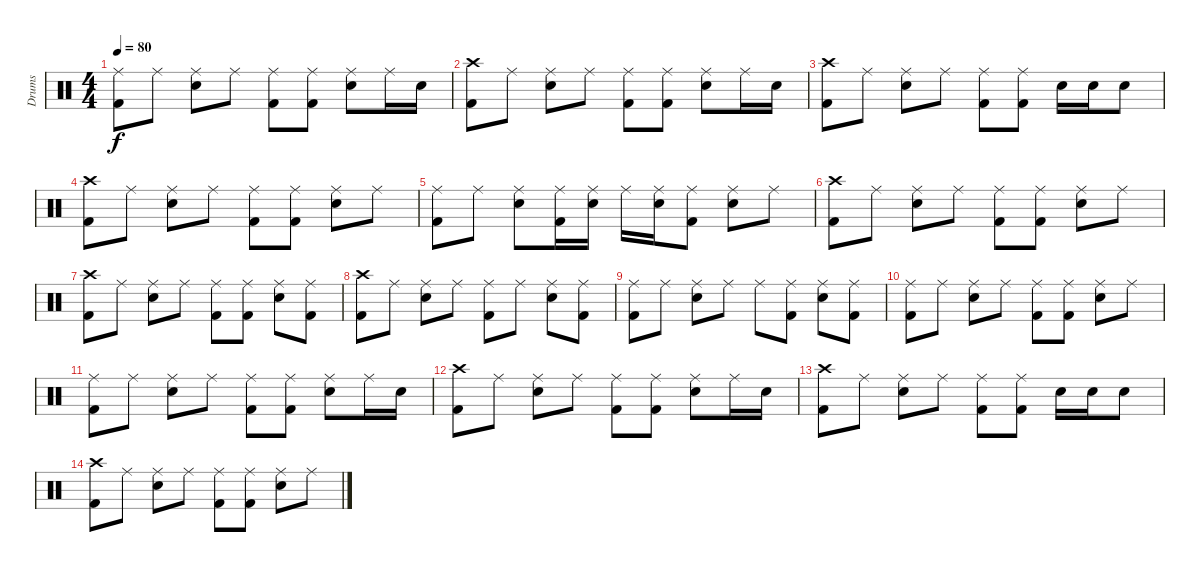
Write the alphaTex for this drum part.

\track ("Drums" "Drums") {instrument percussion}
\staff {score}
\articulation defaults
\ts (4 4)
\tempo 80
\clef neutral
\ks c
("Ride (middle)" "Kick (hit) 2").8{dy f} "Ride (middle)".8 ("Ride (middle)" "Electric Snare (hit)").8 "Ride (middle)".8 ("Ride (middle)" "Kick (hit) 2").8 ("Ride (middle)" "Kick (hit) 2").8 ("Ride (middle)" "Electric Snare (hit)").8 "Ride (middle)".16 "Electric Snare (hit)".16 |
("Crash high (hit)" "Kick (hit) 2").8 "Ride (middle)".8 ("Ride (middle)" "Electric Snare (hit)").8 "Ride (middle)".8 ("Ride (middle)" "Kick (hit) 2").8 ("Ride (middle)" "Kick (hit) 2").8 ("Ride (middle)" "Electric Snare (hit)").8 "Ride (middle)".16 "Electric Snare (hit)".16 |
("Crash high (hit)" "Kick (hit) 2").8 "Ride (middle)".8 ("Ride (middle)" "Electric Snare (hit)").8 "Ride (middle)".8 ("Ride (middle)" "Kick (hit) 2").8 ("Ride (middle)" "Kick (hit) 2").8 "Electric Snare (hit)".16 "Electric Snare (hit)".16 "Electric Snare (hit)".8 |
("Crash high (hit)" "Kick (hit) 2").8 "Ride (middle)".8 ("Ride (middle)" "Electric Snare (hit)").8 "Ride (middle)".8 ("Ride (middle)" "Kick (hit) 2").8 ("Ride (middle)" "Kick (hit) 2").8 ("Ride (middle)" "Electric Snare (hit)").8 "Ride (middle)".8 |
("Ride (middle)" "Kick (hit) 2").8 "Ride (middle)".8 ("Ride (middle)" "Electric Snare (hit)").8 ("Ride (middle)" "Kick (hit) 2").16 ("Ride (middle)" "Electric Snare (hit)").16 "Ride (middle)".16 ("Ride (middle)" "Electric Snare (hit)").16 ("Ride (middle)" "Kick (hit) 2").8 ("Ride (middle)" "Electric Snare (hit)").8 "Ride (middle)".8 |
("Crash high (hit)" "Kick (hit) 2").8 "Ride (middle)".8 ("Ride (middle)" "Electric Snare (hit)").8 "Ride (middle)".8 ("Ride (middle)" "Kick (hit) 2").8 ("Ride (middle)" "Kick (hit) 2").8 ("Ride (middle)" "Electric Snare (hit)").8 "Ride (middle)".8 |
("Crash high (hit)" "Kick (hit) 2").8 "Ride (middle)".8 ("Ride (middle)" "Electric Snare (hit)").8 "Ride (middle)".8 ("Ride (middle)" "Kick (hit) 2").8 ("Ride (middle)" "Kick (hit) 2").8 ("Ride (middle)" "Electric Snare (hit)").8 ("Ride (middle)" "Kick (hit) 2").8 |
("Crash high (hit)" "Kick (hit) 2").8 "Ride (middle)".8 ("Ride (middle)" "Electric Snare (hit)").8 "Ride (middle)".8 ("Ride (middle)" "Kick (hit) 2").8 "Ride (middle)".8 ("Ride (middle)" "Electric Snare (hit)").8 ("Ride (middle)" "Kick (hit) 2").8 |
("Ride (middle)" "Kick (hit) 2").8 "Ride (middle)".8 ("Ride (middle)" "Electric Snare (hit)").8 "Ride (middle)".8 "Ride (middle)".8 ("Ride (middle)" "Kick (hit) 2").8 ("Ride (middle)" "Electric Snare (hit)").8 ("Ride (middle)" "Kick (hit) 2").8 |
("Ride (middle)" "Kick (hit) 2").8 "Ride (middle)".8 ("Ride (middle)" "Electric Snare (hit)").8 "Ride (middle)".8 ("Ride (middle)" "Kick (hit) 2").8 ("Ride (middle)" "Kick (hit) 2").8 ("Ride (middle)" "Electric Snare (hit)").8 "Ride (middle)".8 |
("Ride (middle)" "Kick (hit) 2").8 "Ride (middle)".8 ("Ride (middle)" "Electric Snare (hit)").8 "Ride (middle)".8 ("Ride (middle)" "Kick (hit) 2").8 ("Ride (middle)" "Kick (hit) 2").8 ("Ride (middle)" "Electric Snare (hit)").8 "Ride (middle)".16 "Electric Snare (hit)".16 |
("Crash high (hit)" "Kick (hit) 2").8 "Ride (middle)".8 ("Ride (middle)" "Electric Snare (hit)").8 "Ride (middle)".8 ("Ride (middle)" "Kick (hit) 2").8 ("Ride (middle)" "Kick (hit) 2").8 ("Ride (middle)" "Electric Snare (hit)").8 "Ride (middle)".16 "Electric Snare (hit)".16 |
("Crash high (hit)" "Kick (hit) 2").8 "Ride (middle)".8 ("Ride (middle)" "Electric Snare (hit)").8 "Ride (middle)".8 ("Ride (middle)" "Kick (hit) 2").8 ("Ride (middle)" "Kick (hit) 2").8 "Electric Snare (hit)".16 "Electric Snare (hit)".16 "Electric Snare (hit)".8 |
("Crash high (hit)" "Kick (hit) 2").8 "Ride (middle)".8 ("Ride (middle)" "Electric Snare (hit)").8 "Ride (middle)".8 ("Ride (middle)" "Kick (hit) 2").8 ("Ride (middle)" "Kick (hit) 2").8 ("Ride (middle)" "Electric Snare (hit)").8 "Ride (middle)".8
